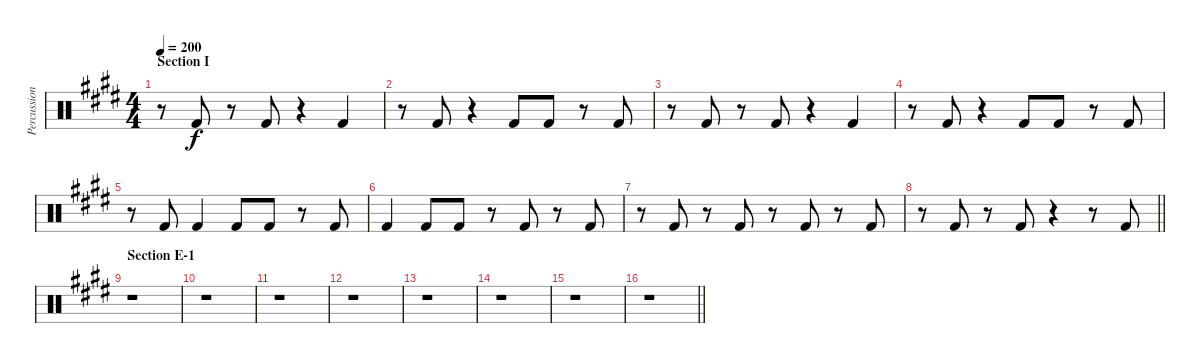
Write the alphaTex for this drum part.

\track ("Percussion - bass drum" "Percussion") {instrument percussion}
\staff {score}
\articulation defaults
\ts (4 4)
\section ("" "Section I")
\tempo 200
\clef neutral
\ks e
r.8{dy f} "Kick (hit) 2".8 r.8 "Kick (hit) 2".8 r.4 "Kick (hit) 2".4 |
r.8 "Kick (hit) 2".8 r.4 "Kick (hit) 2".8 "Kick (hit) 2".8 r.8 "Kick (hit) 2".8 |
r.8 "Kick (hit) 2".8 r.8 "Kick (hit) 2".8 r.4 "Kick (hit) 2".4 |
r.8 "Kick (hit) 2".8 r.4 "Kick (hit) 2".8 "Kick (hit) 2".8 r.8 "Kick (hit) 2".8 |
r.8 "Kick (hit) 2".8 "Kick (hit) 2".4 "Kick (hit) 2".8 "Kick (hit) 2".8 r.8 "Kick (hit) 2".8 |
"Kick (hit) 2".4 "Kick (hit) 2".8 "Kick (hit) 2".8 r.8 "Kick (hit) 2".8 r.8 "Kick (hit) 2".8 |
r.8 "Kick (hit) 2".8 r.8 "Kick (hit) 2".8 r.8 "Kick (hit) 2".8 r.8 "Kick (hit) 2".8 |
\barLineRight lightlight
r.8 "Kick (hit) 2".8 r.8 "Kick (hit) 2".8 r.4 r.8 "Kick (hit) 2".8 |
\section ("" "Section E-1")
r.1 |
r.1 |
r.1 |
r.1 |
r.1 |
r.1 |
r.1 |
\barLineRight lightlight
r.1
